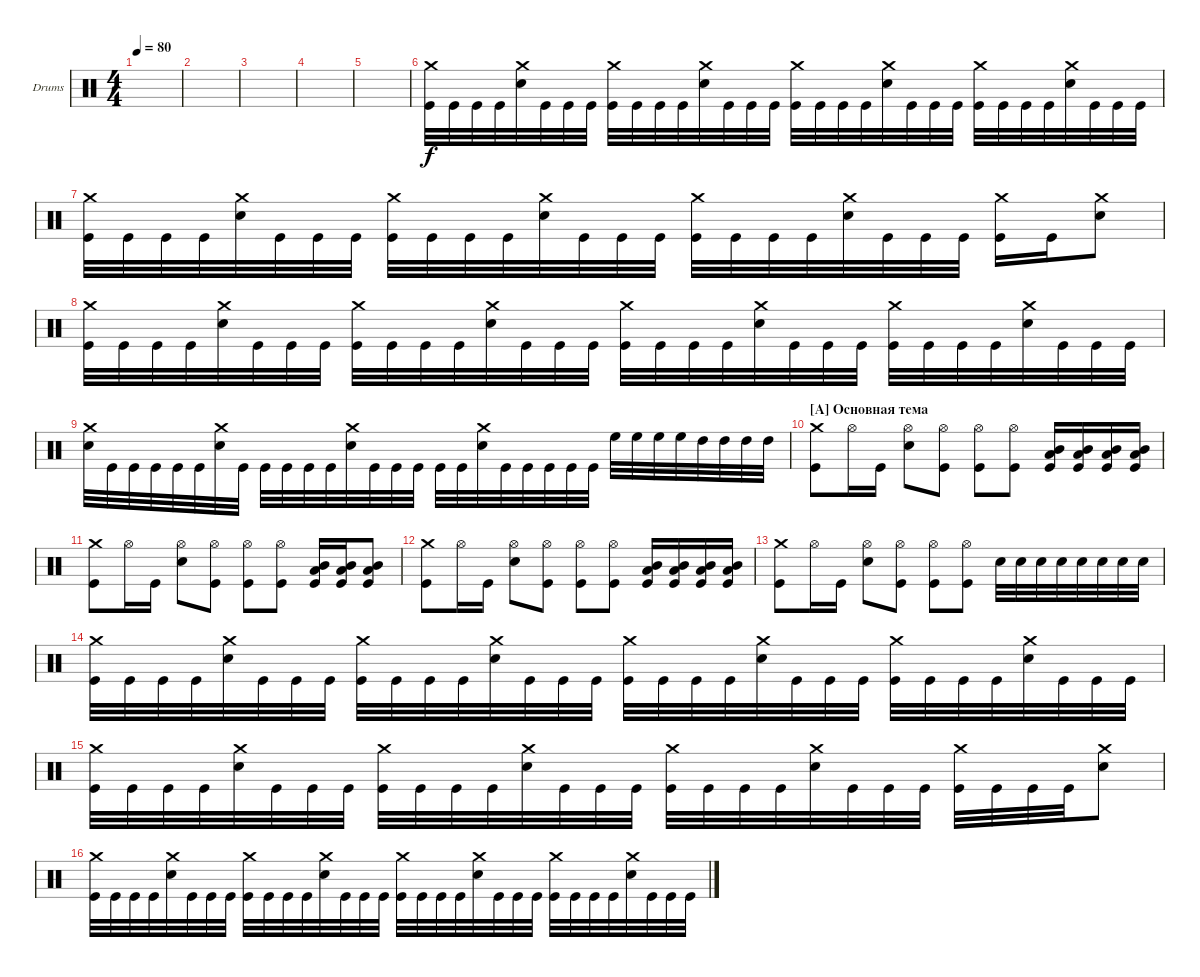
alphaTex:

\defaultSystemsLayout 4
\bracketExtendMode groupsimilarinstruments
\firstSystemTrackNameOrientation horizontal
\otherSystemsTrackNameOrientation horizontal
\track ("Drumkit" "Drums") {instrument percussion}
\staff {score}
\articulation defaults
\ts (4 4)
\tempo 80
\clef neutral
\ks c
|
|
|
|
|
("Crash medium (hit)" "Kick (hit)").32 "Kick (hit)".32 "Kick (hit)".32 "Kick (hit)".32 ("Snare (hit) 2" "Crash medium (hit)").32 "Kick (hit)".32 "Kick (hit)".32 "Kick (hit)".32 ("Crash medium (hit)" "Kick (hit)").32 "Kick (hit)".32 "Kick (hit)".32 "Kick (hit)".32 ("Snare (hit) 2" "Crash medium (hit)").32 "Kick (hit)".32 "Kick (hit)".32 "Kick (hit)".32 ("Crash medium (hit)" "Kick (hit)").32 "Kick (hit)".32 "Kick (hit)".32 "Kick (hit)".32 ("Snare (hit) 2" "Crash medium (hit)").32 "Kick (hit)".32 "Kick (hit)".32 "Kick (hit)".32 ("Crash medium (hit)" "Kick (hit)").32 "Kick (hit)".32 "Kick (hit)".32 "Kick (hit)".32 ("Snare (hit) 2" "Crash medium (hit)").32 "Kick (hit)".32 "Kick (hit)".32 "Kick (hit)".32 |
("Crash medium (hit)" "Kick (hit)").32 "Kick (hit)".32 "Kick (hit)".32 "Kick (hit)".32 ("Snare (hit) 2" "Crash medium (hit)").32 "Kick (hit)".32 "Kick (hit)".32 "Kick (hit)".32 ("Crash medium (hit)" "Kick (hit)").32 "Kick (hit)".32 "Kick (hit)".32 "Kick (hit)".32 ("Snare (hit) 2" "Crash medium (hit)").32 "Kick (hit)".32 "Kick (hit)".32 "Kick (hit)".32 ("Crash medium (hit)" "Kick (hit)").32 "Kick (hit)".32 "Kick (hit)".32 "Kick (hit)".32 ("Snare (hit) 2" "Crash medium (hit)").32 "Kick (hit)".32 "Kick (hit)".32 "Kick (hit)".32 ("Crash medium (hit)" "Kick (hit)").16 "Kick (hit)".16 ("Snare (hit) 2" "Crash medium (hit)").8 |
("Crash medium (hit)" "Kick (hit)").32 "Kick (hit)".32 "Kick (hit)".32 "Kick (hit)".32 ("Snare (hit) 2" "Crash medium (hit)").32 "Kick (hit)".32 "Kick (hit)".32 "Kick (hit)".32 ("Crash medium (hit)" "Kick (hit)").32 "Kick (hit)".32 "Kick (hit)".32 "Kick (hit)".32 ("Snare (hit) 2" "Crash medium (hit)").32 "Kick (hit)".32 "Kick (hit)".32 "Kick (hit)".32 ("Crash medium (hit)" "Kick (hit)").32 "Kick (hit)".32 "Kick (hit)".32 "Kick (hit)".32 ("Snare (hit) 2" "Crash medium (hit)").32 "Kick (hit)".32 "Kick (hit)".32 "Kick (hit)".32 ("Crash medium (hit)" "Kick (hit)").32 "Kick (hit)".32 "Kick (hit)".32 "Kick (hit)".32 ("Snare (hit) 2" "Crash medium (hit)").32 "Kick (hit)".32 "Kick (hit)".32 "Kick (hit)".32 |
("Crash medium (hit)" "Snare (hit) 2").32 "Kick (hit)".32 "Kick (hit)".32 "Kick (hit)".32 "Kick (hit)".32 "Kick (hit)".32 ("Crash medium (hit)" "Snare (hit) 2").32 "Kick (hit)".32 "Kick (hit)".32 "Kick (hit)".32 "Kick (hit)".32 "Kick (hit)".32 ("Crash medium (hit)" "Snare (hit) 2").32 "Kick (hit)".32 "Kick (hit)".32 "Kick (hit)".32 "Kick (hit)".32 "Kick (hit)".32 ("Crash medium (hit)" "Snare (hit) 2").32 "Kick (hit)".32 "Kick (hit)".32 "Kick (hit)".32 "Kick (hit)".32 "Kick (hit)".32 "High Floor Tom (hit)".32 "High Floor Tom (hit)".32 "High Floor Tom (hit)".32 "High Floor Tom (hit)".32 "High Tom (hit)".32 "High Tom (hit)".32 "High Tom (hit)".32 "High Tom (hit)".32 |
\section ("A" "Основная тема")
("Crash medium (hit)" "Kick (hit)").8 "Hi-Hat (open)".16 "Kick (hit)".16 ("Snare (hit) 2" "Hi-Hat (open)").8 ("Kick (hit)" "Hi-Hat (open)").8 ("Kick (hit)" "Hi-Hat (open)").8 ("Kick (hit)" "Hi-Hat (open)").8 ("Kick (hit)" "Low Tom (hit)" "Mid Tom (hit)").16 ("Kick (hit)" "Low Tom (hit)" "Mid Tom (hit)").16 ("Kick (hit)" "Low Tom (hit)" "Mid Tom (hit)").16 ("Kick (hit)" "Low Tom (hit)" "Mid Tom (hit)").16 |
("Crash medium (hit)" "Kick (hit)").8 "Hi-Hat (open)".16 "Kick (hit)".16 ("Snare (hit) 2" "Hi-Hat (open)").8 ("Kick (hit)" "Hi-Hat (open)").8 ("Kick (hit)" "Hi-Hat (open)").8 ("Kick (hit)" "Hi-Hat (open)").8 ("Kick (hit)" "Low Tom (hit)" "Mid Tom (hit)").16 ("Kick (hit)" "Low Tom (hit)" "Mid Tom (hit)").16 ("Kick (hit)" "Low Tom (hit)" "Mid Tom (hit)").8 |
("Crash medium (hit)" "Kick (hit)").8 "Hi-Hat (open)".16 "Kick (hit)".16 ("Snare (hit) 2" "Hi-Hat (open)").8 ("Kick (hit)" "Hi-Hat (open)").8 ("Kick (hit)" "Hi-Hat (open)").8 ("Kick (hit)" "Hi-Hat (open)").8 ("Kick (hit)" "Low Tom (hit)" "Mid Tom (hit)").16 ("Kick (hit)" "Low Tom (hit)" "Mid Tom (hit)").16 ("Kick (hit)" "Low Tom (hit)" "Mid Tom (hit)").16 ("Kick (hit)" "Low Tom (hit)" "Mid Tom (hit)").16 |
("Crash medium (hit)" "Kick (hit)").8 "Hi-Hat (open)".16 "Kick (hit)".16 ("Snare (hit) 2" "Hi-Hat (open)").8 ("Kick (hit)" "Hi-Hat (open)").8 ("Kick (hit)" "Hi-Hat (open)").8 ("Kick (hit)" "Hi-Hat (open)").8 "Snare (hit) 2".32 "Snare (hit) 2".32 "Snare (hit) 2".32 "Snare (hit) 2".32 "Snare (hit) 2".32 "Snare (hit) 2".32 "Snare (hit) 2".32 "Snare (hit) 2".32 |
("Crash medium (hit)" "Kick (hit)").32 "Kick (hit)".32 "Kick (hit)".32 "Kick (hit)".32 ("Snare (hit) 2" "Crash medium (hit)").32 "Kick (hit)".32 "Kick (hit)".32 "Kick (hit)".32 ("Crash medium (hit)" "Kick (hit)").32 "Kick (hit)".32 "Kick (hit)".32 "Kick (hit)".32 ("Snare (hit) 2" "Crash medium (hit)").32 "Kick (hit)".32 "Kick (hit)".32 "Kick (hit)".32 ("Crash medium (hit)" "Kick (hit)").32 "Kick (hit)".32 "Kick (hit)".32 "Kick (hit)".32 ("Snare (hit) 2" "Crash medium (hit)").32 "Kick (hit)".32 "Kick (hit)".32 "Kick (hit)".32 ("Crash medium (hit)" "Kick (hit)").32 "Kick (hit)".32 "Kick (hit)".32 "Kick (hit)".32 ("Snare (hit) 2" "Crash medium (hit)").32 "Kick (hit)".32 "Kick (hit)".32 "Kick (hit)".32 |
("Crash medium (hit)" "Kick (hit)").32 "Kick (hit)".32 "Kick (hit)".32 "Kick (hit)".32 ("Snare (hit) 2" "Crash medium (hit)").32 "Kick (hit)".32 "Kick (hit)".32 "Kick (hit)".32 ("Crash medium (hit)" "Kick (hit)").32 "Kick (hit)".32 "Kick (hit)".32 "Kick (hit)".32 ("Snare (hit) 2" "Crash medium (hit)").32 "Kick (hit)".32 "Kick (hit)".32 "Kick (hit)".32 ("Crash medium (hit)" "Kick (hit)").32 "Kick (hit)".32 "Kick (hit)".32 "Kick (hit)".32 ("Snare (hit) 2" "Crash medium (hit)").32 "Kick (hit)".32 "Kick (hit)".32 "Kick (hit)".32 ("Crash medium (hit)" "Kick (hit)").32 "Kick (hit)".32 "Kick (hit)".32 "Kick (hit)".32 ("Snare (hit) 2" "Crash medium (hit)").8 |
("Crash medium (hit)" "Kick (hit)").32 "Kick (hit)".32 "Kick (hit)".32 "Kick (hit)".32 ("Snare (hit) 2" "Crash medium (hit)").32 "Kick (hit)".32 "Kick (hit)".32 "Kick (hit)".32 ("Crash medium (hit)" "Kick (hit)").32 "Kick (hit)".32 "Kick (hit)".32 "Kick (hit)".32 ("Snare (hit) 2" "Crash medium (hit)").32 "Kick (hit)".32 "Kick (hit)".32 "Kick (hit)".32 ("Crash medium (hit)" "Kick (hit)").32 "Kick (hit)".32 "Kick (hit)".32 "Kick (hit)".32 ("Snare (hit) 2" "Crash medium (hit)").32 "Kick (hit)".32 "Kick (hit)".32 "Kick (hit)".32 ("Crash medium (hit)" "Kick (hit)").32 "Kick (hit)".32 "Kick (hit)".32 "Kick (hit)".32 ("Snare (hit) 2" "Crash medium (hit)").32 "Kick (hit)".32 "Kick (hit)".32 "Kick (hit)".32
